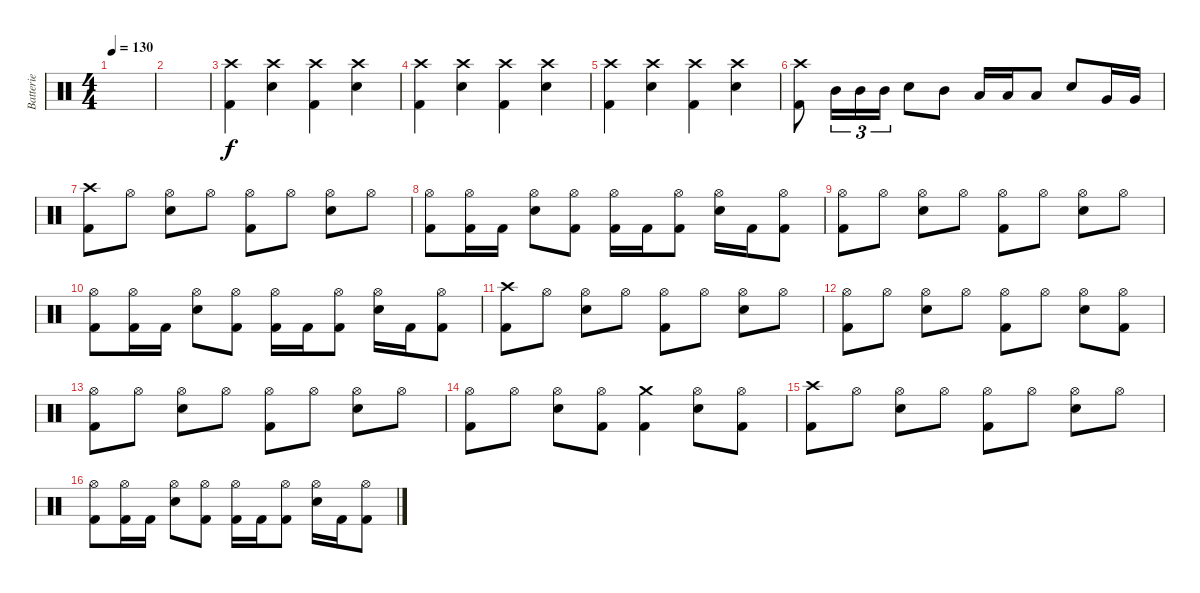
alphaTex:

\track ("Batterie" "Batterie") {instrument percussion}
\staff {score}
\articulation defaults
\ts (4 4)
\tempo 130
\clef neutral
\ks c
|
|
("Crash high (hit)" "Kick (hit) 2").4 ("Crash high (hit)" "Electric Snare (hit)").4 ("Crash high (hit)" "Kick (hit) 2").4 ("Crash high (hit)" "Electric Snare (hit)").4 |
("Crash high (hit)" "Kick (hit) 2").4 ("Crash high (hit)" "Electric Snare (hit)").4 ("Crash high (hit)" "Kick (hit) 2").4 ("Crash high (hit)" "Electric Snare (hit)").4 |
("Crash high (hit)" "Kick (hit) 2").4 ("Crash high (hit)" "Electric Snare (hit)").4 ("Crash high (hit)" "Kick (hit) 2").4 ("Crash high (hit)" "Electric Snare (hit)").4 |
("Crash high (hit)" "Kick (hit) 2").8 "Mid Tom (hit)".16{tu (3 2)} "Mid Tom (hit)".16{tu (3 2)} "Mid Tom (hit)".16{tu (3 2)} "Electric Snare (hit)".8 "Mid Tom (hit)".8 "Low Tom (hit)".16 "Low Tom (hit)".16 "Low Tom (hit)".8 "Electric Snare (hit)".8 "Very Low Tom (hit)".16 "Very Low Tom (hit)".16 |
("Crash high (hit)" "Kick (hit) 2").8 "Hi-Hat (open)".8 ("Hi-Hat (open)" "Electric Snare (hit)").8 "Hi-Hat (open)".8 ("Hi-Hat (open)" "Kick (hit) 2").8 "Hi-Hat (open)".8 ("Hi-Hat (open)" "Electric Snare (hit)").8 "Hi-Hat (open)".8 |
("Hi-Hat (open)" "Kick (hit) 2").8 ("Hi-Hat (open)" "Kick (hit) 2").16 "Kick (hit) 2".16 ("Hi-Hat (open)" "Electric Snare (hit)").8 ("Hi-Hat (open)" "Kick (hit) 2").8 ("Hi-Hat (open)" "Kick (hit) 2").16 "Kick (hit) 2".16 ("Hi-Hat (open)" "Kick (hit) 2").8 ("Hi-Hat (open)" "Electric Snare (hit)").16 "Kick (hit) 2".16 ("Hi-Hat (open)" "Kick (hit) 2").8 |
("Hi-Hat (open)" "Kick (hit) 2").8 "Hi-Hat (open)".8 ("Hi-Hat (open)" "Electric Snare (hit)").8 "Hi-Hat (open)".8 ("Hi-Hat (open)" "Kick (hit) 2").8 "Hi-Hat (open)".8 ("Hi-Hat (open)" "Electric Snare (hit)").8 "Hi-Hat (open)".8 |
("Hi-Hat (open)" "Kick (hit) 2").8 ("Hi-Hat (open)" "Kick (hit) 2").16 "Kick (hit) 2".16 ("Hi-Hat (open)" "Electric Snare (hit)").8 ("Hi-Hat (open)" "Kick (hit) 2").8 ("Hi-Hat (open)" "Kick (hit) 2").16 "Kick (hit) 2".16 ("Hi-Hat (open)" "Kick (hit) 2").8 ("Hi-Hat (open)" "Electric Snare (hit)").16 "Kick (hit) 2".16 ("Hi-Hat (open)" "Kick (hit) 2").8 |
("Crash high (hit)" "Kick (hit) 2").8 "Hi-Hat (open)".8 ("Hi-Hat (open)" "Electric Snare (hit)").8 "Hi-Hat (open)".8 ("Hi-Hat (open)" "Kick (hit) 2").8 "Hi-Hat (open)".8 ("Hi-Hat (open)" "Electric Snare (hit)").8 "Hi-Hat (open)".8 |
("Hi-Hat (open)" "Kick (hit) 2").8 "Hi-Hat (open)".8 ("Hi-Hat (open)" "Electric Snare (hit)").8 "Hi-Hat (open)".8 ("Hi-Hat (open)" "Kick (hit) 2").8 "Hi-Hat (open)".8 ("Hi-Hat (open)" "Electric Snare (hit)").8 ("Hi-Hat (open)" "Kick (hit) 2").8 |
("Hi-Hat (open)" "Kick (hit) 2").8 "Hi-Hat (open)".8 ("Hi-Hat (open)" "Electric Snare (hit)").8 "Hi-Hat (open)".8 ("Hi-Hat (open)" "Kick (hit) 2").8 "Hi-Hat (open)".8 ("Hi-Hat (open)" "Electric Snare (hit)").8 "Hi-Hat (open)".8 |
("Hi-Hat (open)" "Kick (hit) 2").8 "Hi-Hat (open)".8 ("Hi-Hat (open)" "Electric Snare (hit)").8 ("Hi-Hat (open)" "Kick (hit) 2").8 ("Crash medium (hit)" "Kick (hit) 2").4 ("Hi-Hat (open)" "Electric Snare (hit)").8 ("Hi-Hat (open)" "Kick (hit) 2").8 |
("Crash high (hit)" "Kick (hit) 2").8 "Hi-Hat (open)".8 ("Hi-Hat (open)" "Electric Snare (hit)").8 "Hi-Hat (open)".8 ("Hi-Hat (open)" "Kick (hit) 2").8 "Hi-Hat (open)".8 ("Hi-Hat (open)" "Electric Snare (hit)").8 "Hi-Hat (open)".8 |
("Hi-Hat (open)" "Kick (hit) 2").8 ("Hi-Hat (open)" "Kick (hit) 2").16 "Kick (hit) 2".16 ("Hi-Hat (open)" "Electric Snare (hit)").8 ("Hi-Hat (open)" "Kick (hit) 2").8 ("Hi-Hat (open)" "Kick (hit) 2").16 "Kick (hit) 2".16 ("Hi-Hat (open)" "Kick (hit) 2").8 ("Hi-Hat (open)" "Electric Snare (hit)").16 "Kick (hit) 2".16 ("Hi-Hat (open)" "Kick (hit) 2").8
